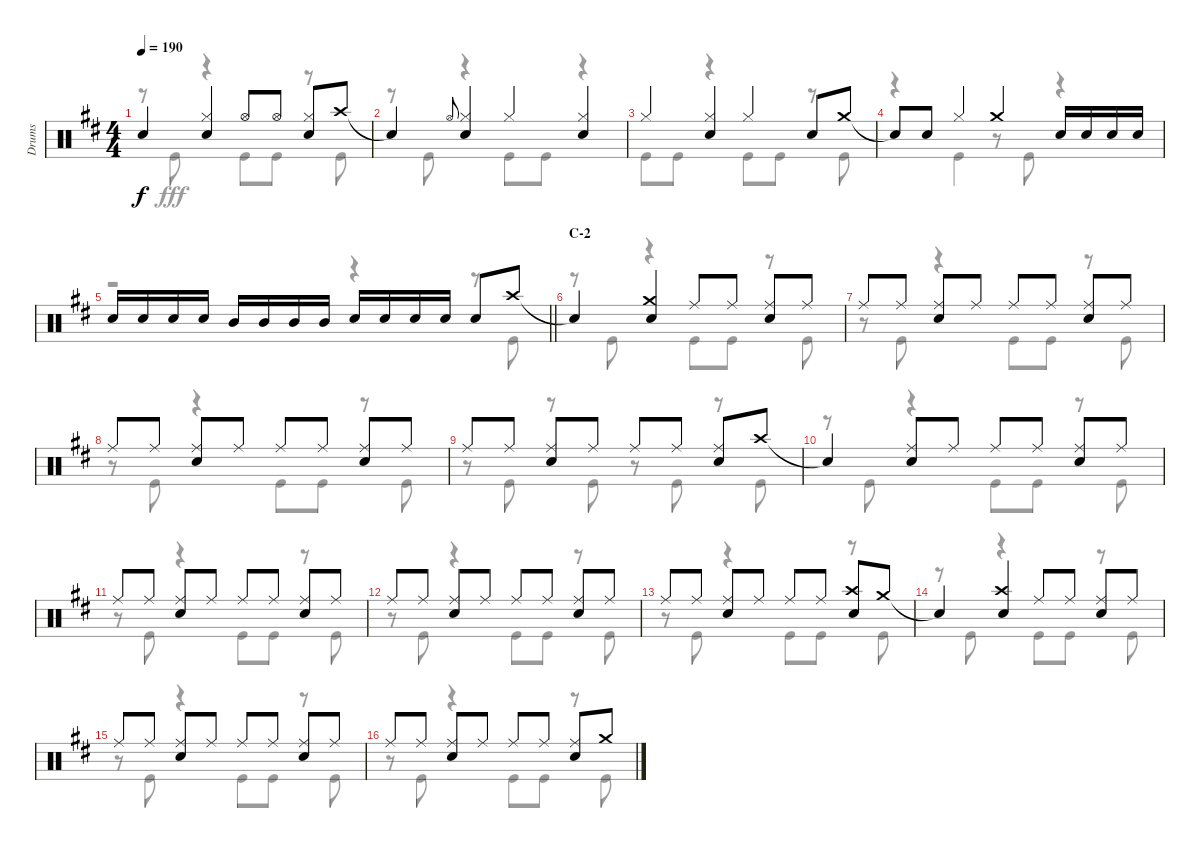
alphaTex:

\track ("Drums" "Drums") {instrument percussion}
\staff {score}
\articulation defaults
\voice
\ts (4 4)
\tempo 190
\clef neutral
\ks d "Snare (hit)"{t}.4{dy f}
("Hi-Hat (closed)" "Snare (hit) 2").4 "Hi-Hat (open)".8 "Hi-Hat (open)".8 ("Hi-Hat (closed)" "Snare (hit) 2").8 "Crash high (hit)".8 |
"Snare (hit)"{t}.4 "Hi-Hat (open)".8{gr onbeat} ("Hi-Hat (closed)" "Snare (hit) 2").4 "Hi-Hat (closed)".4 ("Hi-Hat (closed)" "Snare (hit) 2").4 |
"Hi-Hat (closed)".4 ("Hi-Hat (closed)" "Snare (hit) 2").4 "Hi-Hat (closed)".4 "Snare (hit) 2".8 "Crash medium (hit)".8 |
"Snare (hit)"{t}.8 "Snare (hit) 2".8 "Hi-Hat (closed)".4 "Crash medium (hit)".4 "Snare (hit) 2".16 "Snare (hit) 2".16 "Snare (hit) 2".16 "Snare (hit) 2".16 |
\barLineRight lightlight "Snare (hit) 2".16 "Snare (hit) 2".16 "Snare (hit) 2".16 "Snare (hit) 2".16 "Mid Tom (hit)".16 "Mid Tom (hit)".16 "Mid Tom (hit)".16 "Mid Tom (hit)".16 "Snare (hit) 2".16 "Snare (hit) 2".16 "Snare (hit) 2".16 "Snare (hit) 2".16 "Snare (hit) 2".8 "Crash high (hit)".8
|
\section ("" "C-2")
"Snare (hit)"{t}.4 ("Crash medium (hit)" "Snare (hit) 2").4 "Ride (middle)".8 "Ride (middle)".8 ("Ride (middle)" "Snare (hit) 2").8 "Ride (middle)".8 |
"Ride (middle)".8 "Ride (middle)".8 ("Ride (middle)" "Snare (hit) 2").8 "Ride (middle)".8 "Ride (middle)".8 "Ride (middle)".8 ("Ride (middle)" "Snare (hit) 2").8 "Ride (middle)".8 |
"Ride (middle)".8 "Ride (middle)".8 ("Ride (middle)" "Snare (hit) 2").8 "Ride (middle)".8 "Ride (middle)".8 "Ride (middle)".8 ("Ride (middle)" "Snare (hit) 2").8 "Ride (middle)".8 |
"Ride (middle)".8 "Ride (middle)".8 ("Ride (middle)" "Snare (hit) 2").8 "Ride (middle)".8 "Ride (middle)".8 "Ride (middle)".8 ("Ride (middle)" "Snare (hit) 2").8 "Crash high (hit)".8 |
"Snare (hit)"{t}.4 ("Ride (middle)" "Snare (hit) 2").8 "Ride (middle)".8 "Ride (middle)".8 "Ride (middle)".8 ("Ride (middle)" "Snare (hit) 2").8 "Ride (middle)".8 |
"Ride (middle)".8 "Ride (middle)".8 ("Ride (middle)" "Snare (hit) 2").8 "Ride (middle)".8 "Ride (middle)".8 "Ride (middle)".8 ("Ride (middle)" "Snare (hit) 2").8 "Ride (middle)".8 |
"Ride (middle)".8 "Ride (middle)".8 ("Ride (middle)" "Snare (hit) 2").8 "Ride (middle)".8 "Ride (middle)".8 "Ride (middle)".8 ("Ride (middle)" "Snare (hit) 2").8 "Ride (middle)".8 |
"Ride (middle)".8 "Ride (middle)".8 ("Ride (middle)" "Snare (hit) 2").8 "Ride (middle)".8 "Ride (middle)".8 "Ride (middle)".8 ("Crash high (hit)" "Snare (hit) 2").8 "Crash medium (hit)".8 |
"Snare (hit)"{t}.4 ("Crash high (hit)" "Snare (hit) 2").4 "Ride (middle)".8 "Ride (middle)".8 ("Ride (middle)" "Snare (hit) 2").8 "Ride (middle)".8 |
"Ride (middle)".8 "Ride (middle)".8 ("Ride (middle)" "Snare (hit) 2").8 "Ride (middle)".8 "Ride (middle)".8 "Ride (middle)".8 ("Ride (middle)" "Snare (hit) 2").8 "Ride (middle)".8 |
"Ride (middle)".8 "Ride (middle)".8 ("Ride (middle)" "Snare (hit) 2").8 "Ride (middle)".8 "Ride (middle)".8 "Ride (middle)".8 ("Ride (middle)" "Snare (hit) 2").8 "Crash medium (hit)".8
\voice
\clef neutral
\ottava regular
\simile none
\ks d
r.8{dy fff} "Kick (hit)".8 r.4 "Kick (hit)".8 "Kick (hit)".8 r.8 "Kick (hit)".8 |
r.8 "Kick (hit)".8 r.4 "Kick (hit)".8 "Kick (hit)".8 r.4 |
"Kick (hit)".8 "Kick (hit)".8 r.4 "Kick (hit)".8 "Kick (hit)".8 r.8 "Kick (hit)".8 |
r.4 "Kick (hit)".4 r.8 "Kick (hit)".8 r.4 |
\barLineRight lightlight
r.2 r.4 r.8 "Kick (hit)".8 |
r.8 "Kick (hit)".8 r.4 "Kick (hit)".8 "Kick (hit)".8 r.8 "Kick (hit)".8 |
r.8 "Kick (hit)".8 r.4 "Kick (hit)".8 "Kick (hit)".8 r.8 "Kick (hit)".8 |
r.8 "Kick (hit)".8 r.4 "Kick (hit)".8 "Kick (hit)".8 r.8 "Kick (hit)".8 |
r.8 "Kick (hit)".8 r.8 "Kick (hit)".8 r.8 "Kick (hit)".8 r.8 "Kick (hit)".8 |
r.8 "Kick (hit)".8 r.4 "Kick (hit)".8 "Kick (hit)".8 r.8 "Kick (hit)".8 |
r.8 "Kick (hit)".8 r.4 "Kick (hit)".8 "Kick (hit)".8 r.8 "Kick (hit)".8 |
r.8 "Kick (hit)".8 r.4 "Kick (hit)".8 "Kick (hit)".8 r.8 "Kick (hit)".8 |
r.8 "Kick (hit)".8 r.4 "Kick (hit)".8 "Kick (hit)".8 r.8 "Kick (hit)".8 |
r.8 "Kick (hit)".8 r.4 "Kick (hit)".8 "Kick (hit)".8 r.8 "Kick (hit)".8 |
r.8 "Kick (hit)".8 r.4 "Kick (hit)".8 "Kick (hit)".8 r.8 "Kick (hit)".8 |
r.8 "Kick (hit)".8 r.4 "Kick (hit)".8 "Kick (hit)".8 r.8 "Kick (hit)".8
